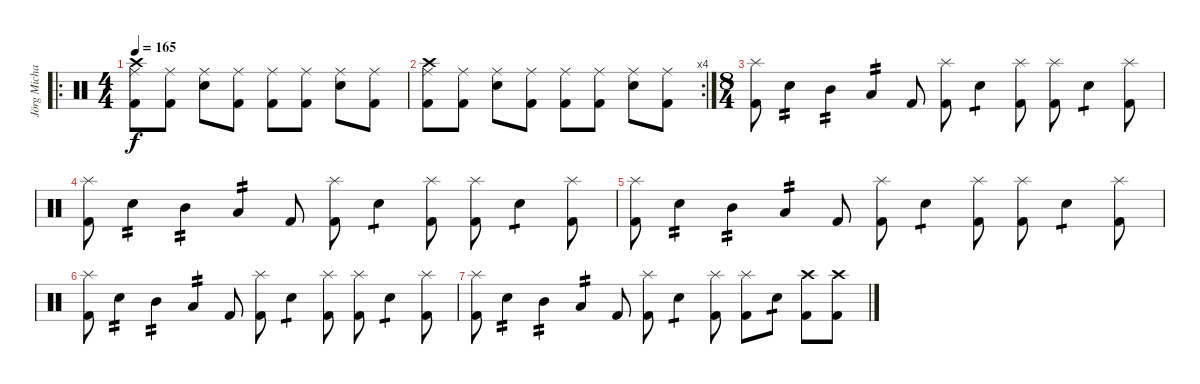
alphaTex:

\track ("Jörg Michael" "Jörg Micha") {instrument percussion}
\staff {score}
\articulation defaults
\ro
\ts (4 4)
\tempo 165
\clef neutral
\ks c
("Kick (hit) 2" "Ride (middle)" "Crash high (hit)").8{dy f} ("Kick (hit) 2" "Ride (middle)").8 ("Snare (hit) 2" "Ride (middle)").8 ("Kick (hit) 2" "Ride (middle)").8 ("Kick (hit) 2" "Ride (middle)").8 ("Kick (hit) 2" "Ride (middle)").8 ("Snare (hit) 2" "Ride (middle)").8 ("Kick (hit) 2" "Ride (middle)").8 |
\rc 4
("Kick (hit) 2" "Ride (middle)" "Crash high (hit)").8 ("Kick (hit) 2" "Ride (middle)").8 ("Snare (hit) 2" "Ride (middle)").8 ("Kick (hit) 2" "Ride (middle)").8 ("Kick (hit) 2" "Ride (middle)").8 ("Kick (hit) 2" "Ride (middle)").8 ("Snare (hit) 2" "Ride (middle)").8 ("Kick (hit) 2" "Ride (middle)").8 |
\ts (8 4)
("Splash (hit)" "Kick (hit) 2").8 "Snare (hit) 2".4{tp 2} "Mid Tom (hit)".4{tp 2} "Low Tom (hit)".4{tp 2} "Kick (hit) 2".8 ("Splash (hit)" "Kick (hit) 2").8 "Snare (hit) 2".4{tp 1} ("Splash (hit)" "Kick (hit) 2").8 ("Splash (hit)" "Kick (hit) 2").8 "Snare (hit) 2".4{tp 1} ("Splash (hit)" "Kick (hit) 2").8 |
("Splash (hit)" "Kick (hit) 2").8 "Snare (hit) 2".4{tp 2} "Mid Tom (hit)".4{tp 2} "Low Tom (hit)".4{tp 2} "Kick (hit) 2".8 ("Splash (hit)" "Kick (hit) 2").8 "Snare (hit) 2".4{tp 1} ("Splash (hit)" "Kick (hit) 2").8 ("Splash (hit)" "Kick (hit) 2").8 "Snare (hit) 2".4{tp 1} ("Splash (hit)" "Kick (hit) 2").8 |
("Splash (hit)" "Kick (hit) 2").8 "Snare (hit) 2".4{tp 2} "Mid Tom (hit)".4{tp 2} "Low Tom (hit)".4{tp 2} "Kick (hit) 2".8 ("Splash (hit)" "Kick (hit) 2").8 "Snare (hit) 2".4{tp 1} ("Splash (hit)" "Kick (hit) 2").8 ("Splash (hit)" "Kick (hit) 2").8 "Snare (hit) 2".4{tp 1} ("Splash (hit)" "Kick (hit) 2").8 |
("Splash (hit)" "Kick (hit) 2").8 "Snare (hit) 2".4{tp 2} "Mid Tom (hit)".4{tp 2} "Low Tom (hit)".4{tp 2} "Kick (hit) 2".8 ("Splash (hit)" "Kick (hit) 2").8 "Snare (hit) 2".4{tp 1} ("Splash (hit)" "Kick (hit) 2").8 ("Splash (hit)" "Kick (hit) 2").8 "Snare (hit) 2".4{tp 1} ("Splash (hit)" "Kick (hit) 2").8 |
("Splash (hit)" "Kick (hit) 2").8 "Snare (hit) 2".4{tp 2} "Mid Tom (hit)".4{tp 2} "Low Tom (hit)".4{tp 2} "Kick (hit) 2".8 ("Splash (hit)" "Kick (hit) 2").8 "Snare (hit) 2".4{tp 1} ("Splash (hit)" "Kick (hit) 2").8 ("Splash (hit)" "Kick (hit) 2").8 "Snare (hit) 2".8{tp 1} ("Crash high (hit)" "Kick (hit) 2").8 ("Crash high (hit)" "Kick (hit) 2").8
